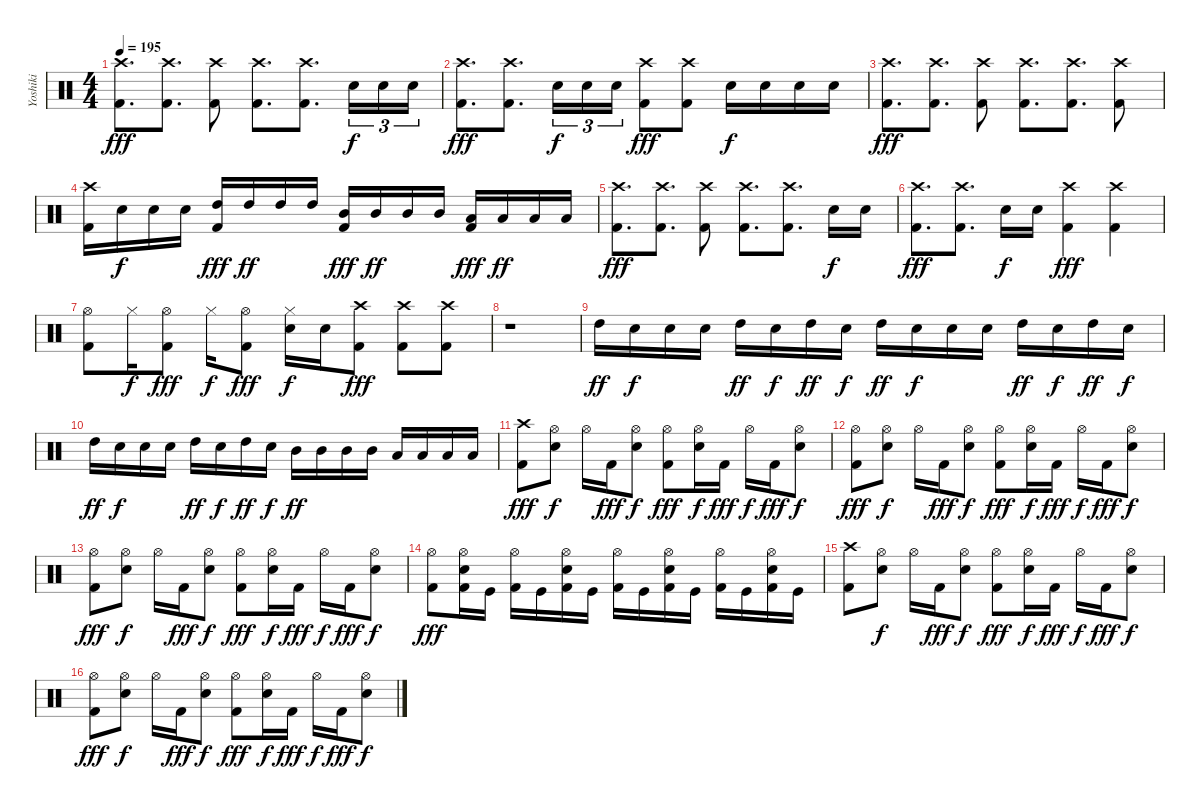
\track ("Yoshiki" "Yoshiki") {instrument percussion}
\staff {score}
\articulation defaults
\ts (4 4)
\tempo 195
\clef neutral
\ks c
("Crash high (hit)" "Kick (hit) 2").8{d dy fff} ("Crash high (hit)" "Kick (hit) 2").8{d} ("Crash high (hit)" "Kick (hit) 2").8 ("Crash high (hit)" "Kick (hit) 2").8{d} ("Crash high (hit)" "Kick (hit) 2").8{d} "Electric Snare (hit)".16{tu (3 2) dy f} "Electric Snare (hit)".16{tu (3 2)} "Electric Snare (hit)".16{tu (3 2)} |
("Crash high (hit)" "Kick (hit) 2").8{d dy fff} ("Crash high (hit)" "Kick (hit) 2").8{d} "Electric Snare (hit)".16{tu (3 2) dy f} "Electric Snare (hit)".16{tu (3 2)} "Electric Snare (hit)".16{tu (3 2)} ("Crash high (hit)" "Kick (hit) 2").8{dy fff} ("Crash high (hit)" "Kick (hit) 2").8 "Electric Snare (hit)".16{dy f} "Electric Snare (hit)".16 "Electric Snare (hit)".16 "Electric Snare (hit)".16 |
("Crash high (hit)" "Kick (hit) 2").8{d dy fff} ("Crash high (hit)" "Kick (hit) 2").8{d} ("Crash high (hit)" "Kick (hit) 2").8 ("Crash high (hit)" "Kick (hit) 2").8{d} ("Crash high (hit)" "Kick (hit) 2").8{d} ("Crash high (hit)" "Kick (hit) 2").8 |
("Crash high (hit)" "Kick (hit) 2").16 "Electric Snare (hit)".16{dy f} "Electric Snare (hit)".16 "Electric Snare (hit)".16 ("High Tom (hit)" "Kick (hit) 2").16{dy fff} "High Tom (hit)".16{dy ff} "High Tom (hit)".16 "High Tom (hit)".16 ("Mid Tom (hit)" "Kick (hit) 2").16{dy fff} "Mid Tom (hit)".16{dy ff} "Mid Tom (hit)".16 "Mid Tom (hit)".16 ("Low Tom (hit)" "Kick (hit) 2").16{dy fff} "Low Tom (hit)".16{dy ff} "Low Tom (hit)".16 "Low Tom (hit)".16 |
("Crash high (hit)" "Kick (hit) 2").8{d dy fff} ("Crash high (hit)" "Kick (hit) 2").8{d} ("Crash high (hit)" "Kick (hit) 2").8 ("Crash high (hit)" "Kick (hit) 2").8{d} ("Crash high (hit)" "Kick (hit) 2").8{d} "Electric Snare (hit)".16{dy f} "Electric Snare (hit)".16 |
("Crash high (hit)" "Kick (hit) 2").8{d dy fff} ("Crash high (hit)" "Kick (hit) 2").8{d} "Electric Snare (hit)".16{dy f} "Electric Snare (hit)".16 ("Crash high (hit)" "Kick (hit) 2").4{dy fff} ("Crash high (hit)" "Kick (hit) 2").4 |
("Hi-Hat (open)" "Kick (hit) 2").8 "Hi-Hat (closed)".16{dy f} ("Hi-Hat (open)" "Kick (hit) 2").8{dy fff} "Hi-Hat (closed)".16{dy f} ("Hi-Hat (open)" "Kick (hit) 2").8{dy fff} ("Hi-Hat (closed)" "Electric Snare (hit)").16{dy f} "Electric Snare (hit)".16 ("Crash high (hit)" "Kick (hit) 2").8{dy fff} ("Crash high (hit)" "Kick (hit) 2").8 ("Crash high (hit)" "Kick (hit) 2").8 |
r.1 |
"High Tom (hit)".16{dy ff} "Electric Snare (hit)".16{dy f} "Electric Snare (hit)".16 "Electric Snare (hit)".16 "High Tom (hit)".16{dy ff} "Electric Snare (hit)".16{dy f} "High Tom (hit)".16{dy ff} "Electric Snare (hit)".16{dy f} "High Tom (hit)".16{dy ff} "Electric Snare (hit)".16{dy f} "Electric Snare (hit)".16 "Electric Snare (hit)".16 "High Tom (hit)".16{dy ff} "Electric Snare (hit)".16{dy f} "High Tom (hit)".16{dy ff} "Electric Snare (hit)".16{dy f} |
"High Tom (hit)".16{dy ff} "Electric Snare (hit)".16{dy f} "Electric Snare (hit)".16 "Electric Snare (hit)".16 "High Tom (hit)".16{dy ff} "Electric Snare (hit)".16{dy f} "High Tom (hit)".16{dy ff} "Electric Snare (hit)".16{dy f} "Mid Tom (hit)".16{dy ff} "Mid Tom (hit)".16 "Mid Tom (hit)".16 "Mid Tom (hit)".16 "Low Tom (hit)".16 "Low Tom (hit)".16 "Low Tom (hit)".16 "Low Tom (hit)".16 |
("Crash high (hit)" "Kick (hit) 2").8{dy fff} ("Hi-Hat (open)" "Electric Snare (hit)").8{dy f} "Hi-Hat (open)".16 "Kick (hit) 2".16{dy fff} ("Hi-Hat (open)" "Electric Snare (hit)").8{dy f} ("Hi-Hat (open)" "Kick (hit) 2").8{dy fff} ("Hi-Hat (open)" "Electric Snare (hit)").16{dy f} "Kick (hit) 2".16{dy fff} "Hi-Hat (open)".16{dy f} "Kick (hit) 2".16{dy fff} ("Hi-Hat (open)" "Electric Snare (hit)").8{dy f} |
("Hi-Hat (open)" "Kick (hit) 2").8{dy fff} ("Hi-Hat (open)" "Electric Snare (hit)").8{dy f} "Hi-Hat (open)".16 "Kick (hit) 2".16{dy fff} ("Hi-Hat (open)" "Electric Snare (hit)").8{dy f} ("Hi-Hat (open)" "Kick (hit) 2").8{dy fff} ("Hi-Hat (open)" "Electric Snare (hit)").16{dy f} "Kick (hit) 2".16{dy fff} "Hi-Hat (open)".16{dy f} "Kick (hit) 2".16{dy fff} ("Hi-Hat (open)" "Electric Snare (hit)").8{dy f} |
("Hi-Hat (open)" "Kick (hit) 2").8{dy fff} ("Hi-Hat (open)" "Electric Snare (hit)").8{dy f} "Hi-Hat (open)".16 "Kick (hit) 2".16{dy fff} ("Hi-Hat (open)" "Electric Snare (hit)").8{dy f} ("Hi-Hat (open)" "Kick (hit) 2").8{dy fff} ("Hi-Hat (open)" "Electric Snare (hit)").16{dy f} "Kick (hit) 2".16{dy fff} "Hi-Hat (open)".16{dy f} "Kick (hit) 2".16{dy fff} ("Hi-Hat (open)" "Electric Snare (hit)").8{dy f} |
("Hi-Hat (open)" "Kick (hit) 2").8{dy fff} ("Hi-Hat (open)" "Electric Snare (hit)" "Kick (hit) 2").16 "Kick (hit)".16 ("Hi-Hat (open)" "Kick (hit) 2").16 "Kick (hit)".16 ("Hi-Hat (open)" "Electric Snare (hit)" "Kick (hit) 2").16 "Kick (hit)".16 ("Hi-Hat (open)" "Kick (hit) 2").16 "Kick (hit)".16 ("Hi-Hat (open)" "Electric Snare (hit)" "Kick (hit) 2").16 "Kick (hit)".16 ("Hi-Hat (open)" "Kick (hit) 2").16 "Kick (hit)".16 ("Hi-Hat (open)" "Electric Snare (hit)" "Kick (hit) 2").16 "Kick (hit)".16 |
("Crash high (hit)" "Kick (hit) 2").8 ("Hi-Hat (open)" "Electric Snare (hit)").8{dy f} "Hi-Hat (open)".16 "Kick (hit) 2".16{dy fff} ("Hi-Hat (open)" "Electric Snare (hit)").8{dy f} ("Hi-Hat (open)" "Kick (hit) 2").8{dy fff} ("Hi-Hat (open)" "Electric Snare (hit)").16{dy f} "Kick (hit) 2".16{dy fff} "Hi-Hat (open)".16{dy f} "Kick (hit) 2".16{dy fff} ("Hi-Hat (open)" "Electric Snare (hit)").8{dy f} |
("Hi-Hat (open)" "Kick (hit) 2").8{dy fff} ("Hi-Hat (open)" "Electric Snare (hit)").8{dy f} "Hi-Hat (open)".16 "Kick (hit) 2".16{dy fff} ("Hi-Hat (open)" "Electric Snare (hit)").8{dy f} ("Hi-Hat (open)" "Kick (hit) 2").8{dy fff} ("Hi-Hat (open)" "Electric Snare (hit)").16{dy f} "Kick (hit) 2".16{dy fff} "Hi-Hat (open)".16{dy f} "Kick (hit) 2".16{dy fff} ("Hi-Hat (open)" "Electric Snare (hit)").8{dy f}
